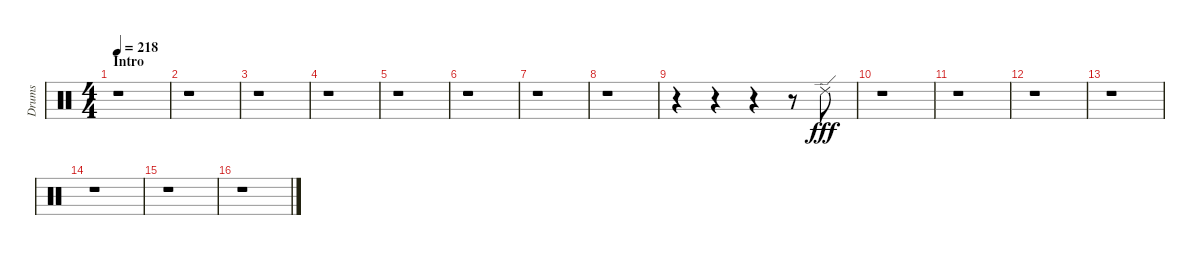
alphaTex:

\track ("Drums" "Drums") {instrument percussion}
\staff {score}
\articulation defaults
\ts (4 4)
\section ("" "Intro")
\tempo 218
\clef neutral
\ks c
r.1{dy fff} |
r.1 |
r.1 |
r.1 |
r.1 |
r.1 |
r.1 |
r.1 |
r.4 r.4 r.4 r.8 "Ride (edge) 2".8 |
r.1 |
r.1 |
r.1 |
r.1 |
r.1 |
r.1 |
r.1
